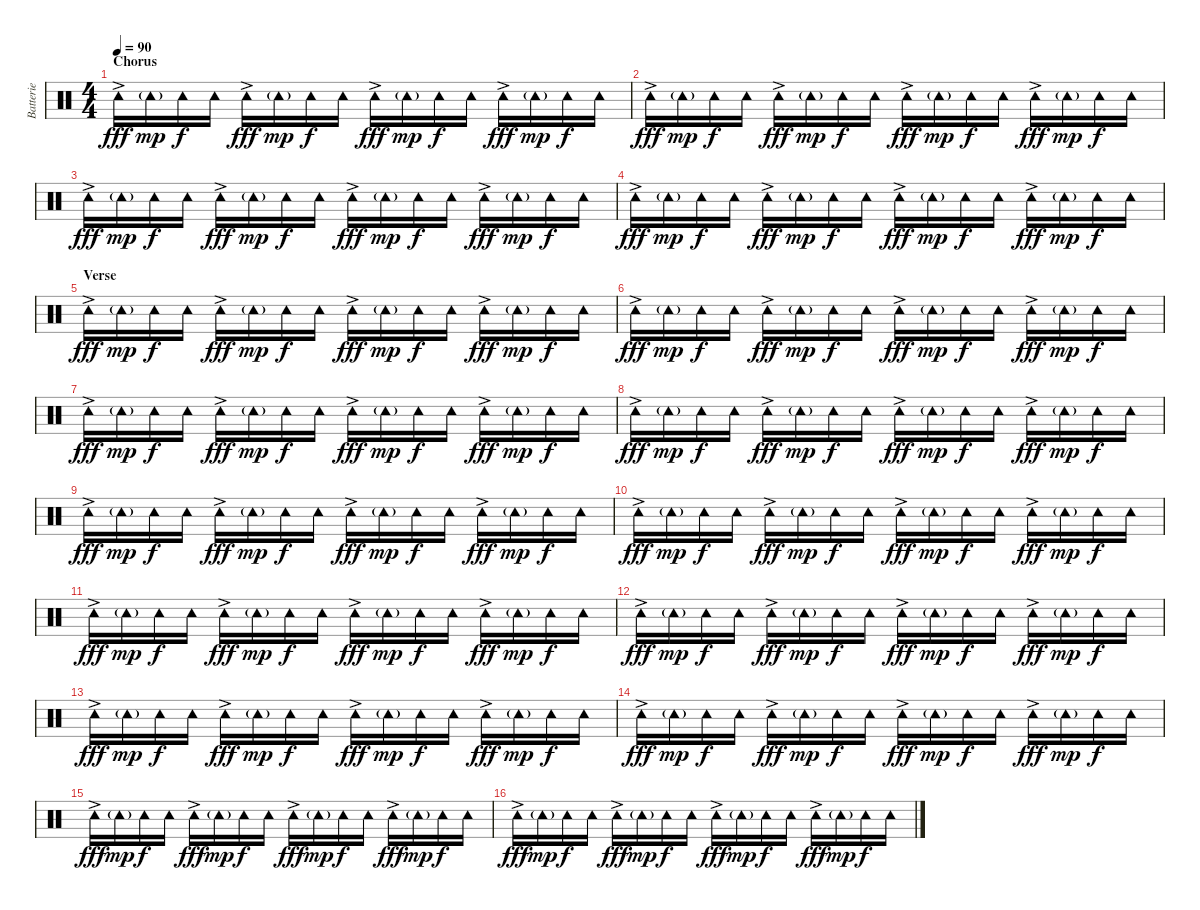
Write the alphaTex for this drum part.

\track ("Batterie" "Batterie") {instrument percussion}
\staff {score}
\articulation defaults
\ts (4 4)
\section ("" "Chorus")
\tempo 90
\clef neutral
\ks c "Tambourine (hit)"{ac}.16{dy fff} "Tambourine (hit)"{g}.16{dy mp} "Tambourine (hit)".16{dy f} "Tambourine (hit)".16 "Tambourine (hit)"{ac}.16{dy fff} "Tambourine (hit)"{g}.16{dy mp} "Tambourine (hit)".16{dy f} "Tambourine (hit)".16 "Tambourine (hit)"{ac}.16{dy fff} "Tambourine (hit)"{g}.16{dy mp} "Tambourine (hit)".16{dy f} "Tambourine (hit)".16 "Tambourine (hit)"{ac}.16{dy fff} "Tambourine (hit)"{g}.16{dy mp} "Tambourine (hit)".16{dy f} "Tambourine (hit)".16
|
"Tambourine (hit)"{ac}.16{dy fff} "Tambourine (hit)"{g}.16{dy mp} "Tambourine (hit)".16{dy f} "Tambourine (hit)".16 "Tambourine (hit)"{ac}.16{dy fff} "Tambourine (hit)"{g}.16{dy mp} "Tambourine (hit)".16{dy f} "Tambourine (hit)".16 "Tambourine (hit)"{ac}.16{dy fff} "Tambourine (hit)"{g}.16{dy mp} "Tambourine (hit)".16{dy f} "Tambourine (hit)".16 "Tambourine (hit)"{ac}.16{dy fff} "Tambourine (hit)"{g}.16{dy mp} "Tambourine (hit)".16{dy f} "Tambourine (hit)".16 |
"Tambourine (hit)"{ac}.16{dy fff} "Tambourine (hit)"{g}.16{dy mp} "Tambourine (hit)".16{dy f} "Tambourine (hit)".16 "Tambourine (hit)"{ac}.16{dy fff} "Tambourine (hit)"{g}.16{dy mp} "Tambourine (hit)".16{dy f} "Tambourine (hit)".16 "Tambourine (hit)"{ac}.16{dy fff} "Tambourine (hit)"{g}.16{dy mp} "Tambourine (hit)".16{dy f} "Tambourine (hit)".16 "Tambourine (hit)"{ac}.16{dy fff} "Tambourine (hit)"{g}.16{dy mp} "Tambourine (hit)".16{dy f} "Tambourine (hit)".16 |
"Tambourine (hit)"{ac}.16{dy fff} "Tambourine (hit)"{g}.16{dy mp} "Tambourine (hit)".16{dy f} "Tambourine (hit)".16 "Tambourine (hit)"{ac}.16{dy fff} "Tambourine (hit)"{g}.16{dy mp} "Tambourine (hit)".16{dy f} "Tambourine (hit)".16 "Tambourine (hit)"{ac}.16{dy fff} "Tambourine (hit)"{g}.16{dy mp} "Tambourine (hit)".16{dy f} "Tambourine (hit)".16 "Tambourine (hit)"{ac}.16{dy fff} "Tambourine (hit)"{g}.16{dy mp} "Tambourine (hit)".16{dy f} "Tambourine (hit)".16 |
\section ("" "Verse")
"Tambourine (hit)"{ac}.16{dy fff} "Tambourine (hit)"{g}.16{dy mp} "Tambourine (hit)".16{dy f} "Tambourine (hit)".16 "Tambourine (hit)"{ac}.16{dy fff} "Tambourine (hit)"{g}.16{dy mp} "Tambourine (hit)".16{dy f} "Tambourine (hit)".16 "Tambourine (hit)"{ac}.16{dy fff} "Tambourine (hit)"{g}.16{dy mp} "Tambourine (hit)".16{dy f} "Tambourine (hit)".16 "Tambourine (hit)"{ac}.16{dy fff} "Tambourine (hit)"{g}.16{dy mp} "Tambourine (hit)".16{dy f} "Tambourine (hit)".16 |
"Tambourine (hit)"{ac}.16{dy fff} "Tambourine (hit)"{g}.16{dy mp} "Tambourine (hit)".16{dy f} "Tambourine (hit)".16 "Tambourine (hit)"{ac}.16{dy fff} "Tambourine (hit)"{g}.16{dy mp} "Tambourine (hit)".16{dy f} "Tambourine (hit)".16 "Tambourine (hit)"{ac}.16{dy fff} "Tambourine (hit)"{g}.16{dy mp} "Tambourine (hit)".16{dy f} "Tambourine (hit)".16 "Tambourine (hit)"{ac}.16{dy fff} "Tambourine (hit)"{g}.16{dy mp} "Tambourine (hit)".16{dy f} "Tambourine (hit)".16 |
"Tambourine (hit)"{ac}.16{dy fff} "Tambourine (hit)"{g}.16{dy mp} "Tambourine (hit)".16{dy f} "Tambourine (hit)".16 "Tambourine (hit)"{ac}.16{dy fff} "Tambourine (hit)"{g}.16{dy mp} "Tambourine (hit)".16{dy f} "Tambourine (hit)".16 "Tambourine (hit)"{ac}.16{dy fff} "Tambourine (hit)"{g}.16{dy mp} "Tambourine (hit)".16{dy f} "Tambourine (hit)".16 "Tambourine (hit)"{ac}.16{dy fff} "Tambourine (hit)"{g}.16{dy mp} "Tambourine (hit)".16{dy f} "Tambourine (hit)".16 |
"Tambourine (hit)"{ac}.16{dy fff} "Tambourine (hit)"{g}.16{dy mp} "Tambourine (hit)".16{dy f} "Tambourine (hit)".16 "Tambourine (hit)"{ac}.16{dy fff} "Tambourine (hit)"{g}.16{dy mp} "Tambourine (hit)".16{dy f} "Tambourine (hit)".16 "Tambourine (hit)"{ac}.16{dy fff} "Tambourine (hit)"{g}.16{dy mp} "Tambourine (hit)".16{dy f} "Tambourine (hit)".16 "Tambourine (hit)"{ac}.16{dy fff} "Tambourine (hit)"{g}.16{dy mp} "Tambourine (hit)".16{dy f} "Tambourine (hit)".16 |
"Tambourine (hit)"{ac}.16{dy fff} "Tambourine (hit)"{g}.16{dy mp} "Tambourine (hit)".16{dy f} "Tambourine (hit)".16 "Tambourine (hit)"{ac}.16{dy fff} "Tambourine (hit)"{g}.16{dy mp} "Tambourine (hit)".16{dy f} "Tambourine (hit)".16 "Tambourine (hit)"{ac}.16{dy fff} "Tambourine (hit)"{g}.16{dy mp} "Tambourine (hit)".16{dy f} "Tambourine (hit)".16 "Tambourine (hit)"{ac}.16{dy fff} "Tambourine (hit)"{g}.16{dy mp} "Tambourine (hit)".16{dy f} "Tambourine (hit)".16 |
"Tambourine (hit)"{ac}.16{dy fff} "Tambourine (hit)"{g}.16{dy mp} "Tambourine (hit)".16{dy f} "Tambourine (hit)".16 "Tambourine (hit)"{ac}.16{dy fff} "Tambourine (hit)"{g}.16{dy mp} "Tambourine (hit)".16{dy f} "Tambourine (hit)".16 "Tambourine (hit)"{ac}.16{dy fff} "Tambourine (hit)"{g}.16{dy mp} "Tambourine (hit)".16{dy f} "Tambourine (hit)".16 "Tambourine (hit)"{ac}.16{dy fff} "Tambourine (hit)"{g}.16{dy mp} "Tambourine (hit)".16{dy f} "Tambourine (hit)".16 |
"Tambourine (hit)"{ac}.16{dy fff} "Tambourine (hit)"{g}.16{dy mp} "Tambourine (hit)".16{dy f} "Tambourine (hit)".16 "Tambourine (hit)"{ac}.16{dy fff} "Tambourine (hit)"{g}.16{dy mp} "Tambourine (hit)".16{dy f} "Tambourine (hit)".16 "Tambourine (hit)"{ac}.16{dy fff} "Tambourine (hit)"{g}.16{dy mp} "Tambourine (hit)".16{dy f} "Tambourine (hit)".16 "Tambourine (hit)"{ac}.16{dy fff} "Tambourine (hit)"{g}.16{dy mp} "Tambourine (hit)".16{dy f} "Tambourine (hit)".16 |
"Tambourine (hit)"{ac}.16{dy fff} "Tambourine (hit)"{g}.16{dy mp} "Tambourine (hit)".16{dy f} "Tambourine (hit)".16 "Tambourine (hit)"{ac}.16{dy fff} "Tambourine (hit)"{g}.16{dy mp} "Tambourine (hit)".16{dy f} "Tambourine (hit)".16 "Tambourine (hit)"{ac}.16{dy fff} "Tambourine (hit)"{g}.16{dy mp} "Tambourine (hit)".16{dy f} "Tambourine (hit)".16 "Tambourine (hit)"{ac}.16{dy fff} "Tambourine (hit)"{g}.16{dy mp} "Tambourine (hit)".16{dy f} "Tambourine (hit)".16 |
"Tambourine (hit)"{ac}.16{dy fff} "Tambourine (hit)"{g}.16{dy mp} "Tambourine (hit)".16{dy f} "Tambourine (hit)".16 "Tambourine (hit)"{ac}.16{dy fff} "Tambourine (hit)"{g}.16{dy mp} "Tambourine (hit)".16{dy f} "Tambourine (hit)".16 "Tambourine (hit)"{ac}.16{dy fff} "Tambourine (hit)"{g}.16{dy mp} "Tambourine (hit)".16{dy f} "Tambourine (hit)".16 "Tambourine (hit)"{ac}.16{dy fff} "Tambourine (hit)"{g}.16{dy mp} "Tambourine (hit)".16{dy f} "Tambourine (hit)".16 |
"Tambourine (hit)"{ac}.16{dy fff} "Tambourine (hit)"{g}.16{dy mp} "Tambourine (hit)".16{dy f} "Tambourine (hit)".16 "Tambourine (hit)"{ac}.16{dy fff} "Tambourine (hit)"{g}.16{dy mp} "Tambourine (hit)".16{dy f} "Tambourine (hit)".16 "Tambourine (hit)"{ac}.16{dy fff} "Tambourine (hit)"{g}.16{dy mp} "Tambourine (hit)".16{dy f} "Tambourine (hit)".16 "Tambourine (hit)"{ac}.16{dy fff} "Tambourine (hit)"{g}.16{dy mp} "Tambourine (hit)".16{dy f} "Tambourine (hit)".16 |
"Tambourine (hit)"{ac}.16{dy fff} "Tambourine (hit)"{g}.16{dy mp} "Tambourine (hit)".16{dy f} "Tambourine (hit)".16 "Tambourine (hit)"{ac}.16{dy fff} "Tambourine (hit)"{g}.16{dy mp} "Tambourine (hit)".16{dy f} "Tambourine (hit)".16 "Tambourine (hit)"{ac}.16{dy fff} "Tambourine (hit)"{g}.16{dy mp} "Tambourine (hit)".16{dy f} "Tambourine (hit)".16 "Tambourine (hit)"{ac}.16{dy fff} "Tambourine (hit)"{g}.16{dy mp} "Tambourine (hit)".16{dy f} "Tambourine (hit)".16 |
"Tambourine (hit)"{ac}.16{dy fff} "Tambourine (hit)"{g}.16{dy mp} "Tambourine (hit)".16{dy f} "Tambourine (hit)".16 "Tambourine (hit)"{ac}.16{dy fff} "Tambourine (hit)"{g}.16{dy mp} "Tambourine (hit)".16{dy f} "Tambourine (hit)".16 "Tambourine (hit)"{ac}.16{dy fff} "Tambourine (hit)"{g}.16{dy mp} "Tambourine (hit)".16{dy f} "Tambourine (hit)".16 "Tambourine (hit)"{ac}.16{dy fff} "Tambourine (hit)"{g}.16{dy mp} "Tambourine (hit)".16{dy f} "Tambourine (hit)".16
